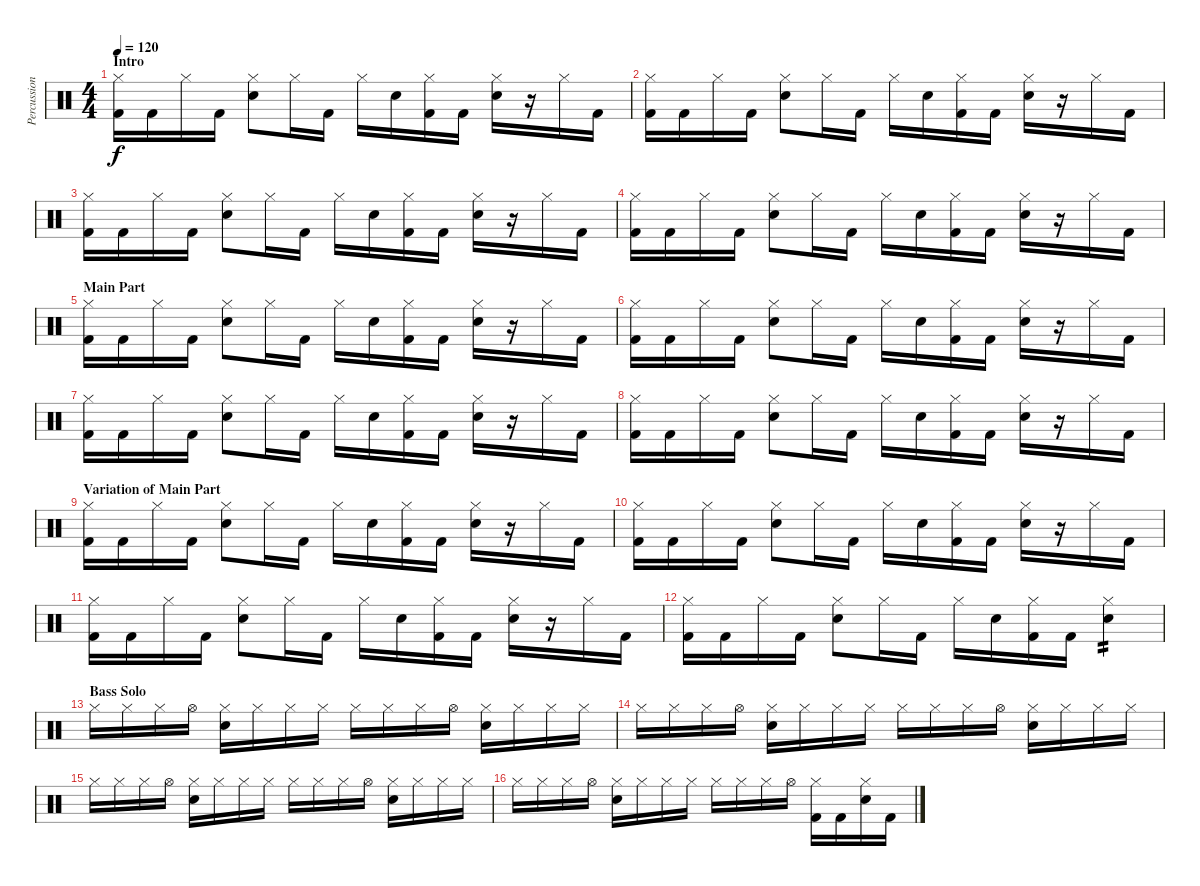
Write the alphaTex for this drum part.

\track ("Percussion" "Percussion") {instrument percussion}
\staff {score}
\articulation defaults
\ts (4 4)
\section ("" "Intro")
\tempo 120
\clef neutral
\ks c
("Hi-Hat (closed)" "Kick (hit) 2").16{dy f} "Kick (hit) 2".16 "Hi-Hat (closed)".16 "Kick (hit) 2".16 ("Hi-Hat (closed)" "Electric Snare (hit)").8 "Hi-Hat (closed)".16 "Kick (hit) 2".16 "Hi-Hat (closed)".16 "Electric Snare (hit)".16 ("Hi-Hat (closed)" "Kick (hit) 2").16 "Kick (hit) 2".16 ("Hi-Hat (closed)" "Electric Snare (hit)").16 r.16 "Hi-Hat (closed)".16 "Kick (hit) 2".16 |
("Hi-Hat (closed)" "Kick (hit) 2").16 "Kick (hit) 2".16 "Hi-Hat (closed)".16 "Kick (hit) 2".16 ("Hi-Hat (closed)" "Electric Snare (hit)").8 "Hi-Hat (closed)".16 "Kick (hit) 2".16 "Hi-Hat (closed)".16 "Electric Snare (hit)".16 ("Hi-Hat (closed)" "Kick (hit) 2").16 "Kick (hit) 2".16 ("Hi-Hat (closed)" "Electric Snare (hit)").16 r.16 "Hi-Hat (closed)".16 "Kick (hit) 2".16 |
("Hi-Hat (closed)" "Kick (hit) 2").16 "Kick (hit) 2".16 "Hi-Hat (closed)".16 "Kick (hit) 2".16 ("Hi-Hat (closed)" "Electric Snare (hit)").8 "Hi-Hat (closed)".16 "Kick (hit) 2".16 "Hi-Hat (closed)".16 "Electric Snare (hit)".16 ("Hi-Hat (closed)" "Kick (hit) 2").16 "Kick (hit) 2".16 ("Hi-Hat (closed)" "Electric Snare (hit)").16 r.16 "Hi-Hat (closed)".16 "Kick (hit) 2".16 |
("Hi-Hat (closed)" "Kick (hit) 2").16 "Kick (hit) 2".16 "Hi-Hat (closed)".16 "Kick (hit) 2".16 ("Hi-Hat (closed)" "Electric Snare (hit)").8 "Hi-Hat (closed)".16 "Kick (hit) 2".16 "Hi-Hat (closed)".16 "Electric Snare (hit)".16 ("Hi-Hat (closed)" "Kick (hit) 2").16 "Kick (hit) 2".16 ("Hi-Hat (closed)" "Electric Snare (hit)").16 r.16 "Hi-Hat (closed)".16 "Kick (hit) 2".16 |
\section ("" "Main Part")
("Hi-Hat (closed)" "Kick (hit) 2").16 "Kick (hit) 2".16 "Hi-Hat (closed)".16 "Kick (hit) 2".16 ("Hi-Hat (closed)" "Electric Snare (hit)").8 "Hi-Hat (closed)".16 "Kick (hit) 2".16 "Hi-Hat (closed)".16 "Electric Snare (hit)".16 ("Hi-Hat (closed)" "Kick (hit) 2").16 "Kick (hit) 2".16 ("Hi-Hat (closed)" "Electric Snare (hit)").16 r.16 "Hi-Hat (closed)".16 "Kick (hit) 2".16 |
("Hi-Hat (closed)" "Kick (hit) 2").16 "Kick (hit) 2".16 "Hi-Hat (closed)".16 "Kick (hit) 2".16 ("Hi-Hat (closed)" "Electric Snare (hit)").8 "Hi-Hat (closed)".16 "Kick (hit) 2".16 "Hi-Hat (closed)".16 "Electric Snare (hit)".16 ("Hi-Hat (closed)" "Kick (hit) 2").16 "Kick (hit) 2".16 ("Hi-Hat (closed)" "Electric Snare (hit)").16 r.16 "Hi-Hat (closed)".16 "Kick (hit) 2".16 |
("Hi-Hat (closed)" "Kick (hit) 2").16 "Kick (hit) 2".16 "Hi-Hat (closed)".16 "Kick (hit) 2".16 ("Hi-Hat (closed)" "Electric Snare (hit)").8 "Hi-Hat (closed)".16 "Kick (hit) 2".16 "Hi-Hat (closed)".16 "Electric Snare (hit)".16 ("Hi-Hat (closed)" "Kick (hit) 2").16 "Kick (hit) 2".16 ("Hi-Hat (closed)" "Electric Snare (hit)").16 r.16 "Hi-Hat (closed)".16 "Kick (hit) 2".16 |
("Hi-Hat (closed)" "Kick (hit) 2").16 "Kick (hit) 2".16 "Hi-Hat (closed)".16 "Kick (hit) 2".16 ("Hi-Hat (closed)" "Electric Snare (hit)").8 "Hi-Hat (closed)".16 "Kick (hit) 2".16 "Hi-Hat (closed)".16 "Electric Snare (hit)".16 ("Hi-Hat (closed)" "Kick (hit) 2").16 "Kick (hit) 2".16 ("Hi-Hat (closed)" "Electric Snare (hit)").16 r.16 "Hi-Hat (closed)".16 "Kick (hit) 2".16 |
\section ("" "Variation of Main Part")
("Hi-Hat (closed)" "Kick (hit) 2").16 "Kick (hit) 2".16 "Hi-Hat (closed)".16 "Kick (hit) 2".16 ("Hi-Hat (closed)" "Electric Snare (hit)").8 "Hi-Hat (closed)".16 "Kick (hit) 2".16 "Hi-Hat (closed)".16 "Electric Snare (hit)".16 ("Hi-Hat (closed)" "Kick (hit) 2").16 "Kick (hit) 2".16 ("Hi-Hat (closed)" "Electric Snare (hit)").16 r.16 "Hi-Hat (closed)".16 "Kick (hit) 2".16 |
("Hi-Hat (closed)" "Kick (hit) 2").16 "Kick (hit) 2".16 "Hi-Hat (closed)".16 "Kick (hit) 2".16 ("Hi-Hat (closed)" "Electric Snare (hit)").8 "Hi-Hat (closed)".16 "Kick (hit) 2".16 "Hi-Hat (closed)".16 "Electric Snare (hit)".16 ("Hi-Hat (closed)" "Kick (hit) 2").16 "Kick (hit) 2".16 ("Hi-Hat (closed)" "Electric Snare (hit)").16 r.16 "Hi-Hat (closed)".16 "Kick (hit) 2".16 |
("Hi-Hat (closed)" "Kick (hit) 2").16 "Kick (hit) 2".16 "Hi-Hat (closed)".16 "Kick (hit) 2".16 ("Hi-Hat (closed)" "Electric Snare (hit)").8 "Hi-Hat (closed)".16 "Kick (hit) 2".16 "Hi-Hat (closed)".16 "Electric Snare (hit)".16 ("Hi-Hat (closed)" "Kick (hit) 2").16 "Kick (hit) 2".16 ("Hi-Hat (closed)" "Electric Snare (hit)").16 r.16 "Hi-Hat (closed)".16 "Kick (hit) 2".16 |
("Hi-Hat (closed)" "Kick (hit) 2").16 "Kick (hit) 2".16 "Hi-Hat (closed)".16 "Kick (hit) 2".16 ("Hi-Hat (closed)" "Electric Snare (hit)").8 "Hi-Hat (closed)".16 "Kick (hit) 2".16 "Hi-Hat (closed)".16 "Electric Snare (hit)".16 ("Hi-Hat (closed)" "Kick (hit) 2").16 "Kick (hit) 2".16 ("Hi-Hat (closed)" "Snare (hit) 2").4{tp 2} |
\section ("" "Bass Solo")
"Hi-Hat (closed)".16{volume 9} "Hi-Hat (closed)".16 "Hi-Hat (closed)".16 "Hi-Hat (open)".16 ("Hi-Hat (closed)" "Snare (hit) 2").16 "Hi-Hat (closed)".16 "Hi-Hat (closed)".16 "Hi-Hat (closed)".16 "Hi-Hat (closed)".16 "Hi-Hat (closed)".16 "Hi-Hat (closed)".16 "Hi-Hat (open)".16 ("Hi-Hat (closed)" "Snare (hit) 2").16 "Hi-Hat (closed)".16 "Hi-Hat (closed)".16 "Hi-Hat (closed)".16 |
"Hi-Hat (closed)".16{volume 9} "Hi-Hat (closed)".16 "Hi-Hat (closed)".16 "Hi-Hat (open)".16 ("Hi-Hat (closed)" "Snare (hit) 2").16 "Hi-Hat (closed)".16 "Hi-Hat (closed)".16 "Hi-Hat (closed)".16 "Hi-Hat (closed)".16 "Hi-Hat (closed)".16 "Hi-Hat (closed)".16 "Hi-Hat (open)".16 ("Hi-Hat (closed)" "Snare (hit) 2").16 "Hi-Hat (closed)".16 "Hi-Hat (closed)".16 "Hi-Hat (closed)".16 |
"Hi-Hat (closed)".16{volume 9} "Hi-Hat (closed)".16 "Hi-Hat (closed)".16 "Hi-Hat (open)".16 ("Hi-Hat (closed)" "Snare (hit) 2").16 "Hi-Hat (closed)".16 "Hi-Hat (closed)".16 "Hi-Hat (closed)".16 "Hi-Hat (closed)".16 "Hi-Hat (closed)".16 "Hi-Hat (closed)".16 "Hi-Hat (open)".16 ("Hi-Hat (closed)" "Snare (hit) 2").16 "Hi-Hat (closed)".16 "Hi-Hat (closed)".16 "Hi-Hat (closed)".16 |
"Hi-Hat (closed)".16{volume 9} "Hi-Hat (closed)".16 "Hi-Hat (closed)".16 "Hi-Hat (open)".16 ("Hi-Hat (closed)" "Snare (hit) 2").16 "Hi-Hat (closed)".16 "Hi-Hat (closed)".16 "Hi-Hat (closed)".16 "Hi-Hat (closed)".16{volume 13} "Hi-Hat (closed)".16 "Hi-Hat (closed)".16 "Hi-Hat (open)".16 ("Hi-Hat (closed)" "Kick (hit) 2").16 "Kick (hit) 2".16 ("Hi-Hat (closed)" "Electric Snare (hit)").16 "Kick (hit) 2".16
